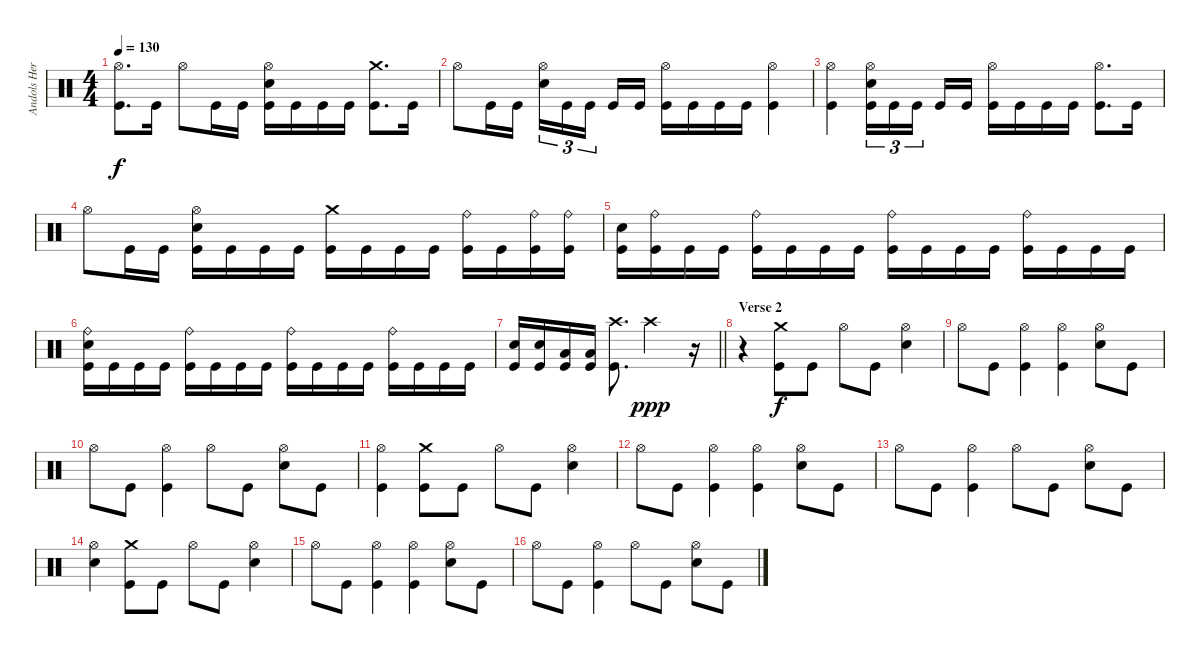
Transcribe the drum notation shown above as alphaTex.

\track ("Andols Herrick" "Andols Her") {instrument percussion}
\staff {score}
\articulation defaults
\ts (4 4)
\tempo 130
\clef neutral
\ks c
("Hi-Hat (open)" "Kick (hit)").8{d dy f} "Kick (hit)".16 "Hi-Hat (open)".8 "Kick (hit)".16 "Kick (hit)".16 ("Hi-Hat (open)" "Electric Snare (hit)" "Kick (hit)").16 "Kick (hit)".16 "Kick (hit)".16 "Kick (hit)".16 ("Crash medium (hit)" "Kick (hit)").8{d} "Kick (hit)".16 |
"Hi-Hat (open)".8 "Kick (hit)".16 "Kick (hit)".16 ("Hi-Hat (open)" "Electric Snare (hit)").16{tu (3 2)} "Kick (hit)".16{tu (3 2)} "Kick (hit)".16{tu (3 2) beam splitsecondary} "Kick (hit)".16 "Kick (hit)".16 ("Hi-Hat (open)" "Kick (hit)").16 "Kick (hit)".16 "Kick (hit)".16 "Kick (hit)".16 ("Hi-Hat (open)" "Kick (hit)").4 |
("Hi-Hat (open)" "Kick (hit)").4 ("Hi-Hat (open)" "Electric Snare (hit)" "Kick (hit)").16{tu (3 2)} "Kick (hit)".16{tu (3 2)} "Kick (hit)".16{tu (3 2) beam splitsecondary} "Kick (hit)".16 "Kick (hit)".16 ("Hi-Hat (open)" "Kick (hit)").16 "Kick (hit)".16 "Kick (hit)".16 "Kick (hit)".16 ("Hi-Hat (open)" "Kick (hit)").8{d} "Kick (hit)".16 |
"Hi-Hat (open)".8 "Kick (hit)".16 "Kick (hit)".16 ("Hi-Hat (open)" "Electric Snare (hit)" "Kick (hit)").16 "Kick (hit)".16 "Kick (hit)".16 "Kick (hit)".16 ("Crash medium (hit)" "Kick (hit)").16 "Kick (hit)".16 "Kick (hit)".16 "Kick (hit)".16 ("Ride (bell)" "Kick (hit)").16 "Kick (hit)".16 ("Ride (bell)" "Kick (hit)").16 ("Ride (bell)" "Kick (hit)").16 |
("Electric Snare (hit)" "Kick (hit)").16 ("Ride (bell)" "Kick (hit)").16 "Kick (hit)".16 "Kick (hit)".16 ("Ride (bell)" "Kick (hit)").16 "Kick (hit)".16 "Kick (hit)".16 "Kick (hit)".16 ("Ride (bell)" "Kick (hit)").16 "Kick (hit)".16 "Kick (hit)".16 "Kick (hit)".16 ("Ride (bell)" "Kick (hit)").16 "Kick (hit)".16 "Kick (hit)".16 "Kick (hit)".16 |
("Ride (bell)" "Electric Snare (hit)" "Kick (hit)").16 "Kick (hit)".16 "Kick (hit)".16 "Kick (hit)".16 ("Ride (bell)" "Kick (hit)").16 "Kick (hit)".16 "Kick (hit)".16 "Kick (hit)".16 ("Ride (bell)" "Kick (hit)").16 "Kick (hit)".16 "Kick (hit)".16 "Kick (hit)".16 ("Ride (bell)" "Kick (hit)").16 "Kick (hit)".16 "Kick (hit)".16 "Kick (hit)".16 |
\barLineRight lightlight
("Electric Snare (hit)" "Kick (hit)").16 ("Electric Snare (hit)" "Kick (hit)").16 ("Low Tom (hit)" "Kick (hit)").16 ("Low Tom (hit)" "Kick (hit)").16 ("Crash high (hit)" "Kick (hit)").8{d} "Crash high (hit)".2{dy ppp} r.16 |
\section ("" "Verse 2")
r.4 ("Crash medium (hit)" "Kick (hit)").8{dy f} "Kick (hit)".8 "Hi-Hat (open)".8 "Kick (hit)".8 ("Hi-Hat (open)" "Electric Snare (hit)").4 |
"Hi-Hat (open)".8 "Kick (hit)".8 ("Hi-Hat (open)" "Kick (hit)").4 ("Hi-Hat (open)" "Kick (hit)").4 ("Hi-Hat (open)" "Electric Snare (hit)").8 "Kick (hit)".8 |
"Hi-Hat (open)".8 "Kick (hit)".8 ("Hi-Hat (open)" "Kick (hit)").4 "Hi-Hat (open)".8 "Kick (hit)".8 ("Hi-Hat (open)" "Electric Snare (hit)").8 "Kick (hit)".8 |
("Hi-Hat (open)" "Kick (hit)").4 ("Crash medium (hit)" "Kick (hit)").8 "Kick (hit)".8 "Hi-Hat (open)".8 "Kick (hit)".8 ("Hi-Hat (open)" "Electric Snare (hit)").4 |
"Hi-Hat (open)".8 "Kick (hit)".8 ("Hi-Hat (open)" "Kick (hit)").4 ("Hi-Hat (open)" "Kick (hit)").4 ("Hi-Hat (open)" "Electric Snare (hit)").8 "Kick (hit)".8 |
"Hi-Hat (open)".8 "Kick (hit)".8 ("Hi-Hat (open)" "Kick (hit)").4 "Hi-Hat (open)".8 "Kick (hit)".8 ("Hi-Hat (open)" "Electric Snare (hit)").8 "Kick (hit)".8 |
("Hi-Hat (open)" "Electric Snare (hit)").4 ("Crash medium (hit)" "Kick (hit)").8 "Kick (hit)".8 "Hi-Hat (open)".8 "Kick (hit)".8 ("Hi-Hat (open)" "Electric Snare (hit)").4 |
"Hi-Hat (open)".8 "Kick (hit)".8 ("Hi-Hat (open)" "Kick (hit)").4 ("Hi-Hat (open)" "Kick (hit)").4 ("Hi-Hat (open)" "Electric Snare (hit)").8 "Kick (hit)".8 |
"Hi-Hat (open)".8 "Kick (hit)".8 ("Hi-Hat (open)" "Kick (hit)").4 "Hi-Hat (open)".8 "Kick (hit)".8 ("Hi-Hat (open)" "Electric Snare (hit)").8 "Kick (hit)".8
